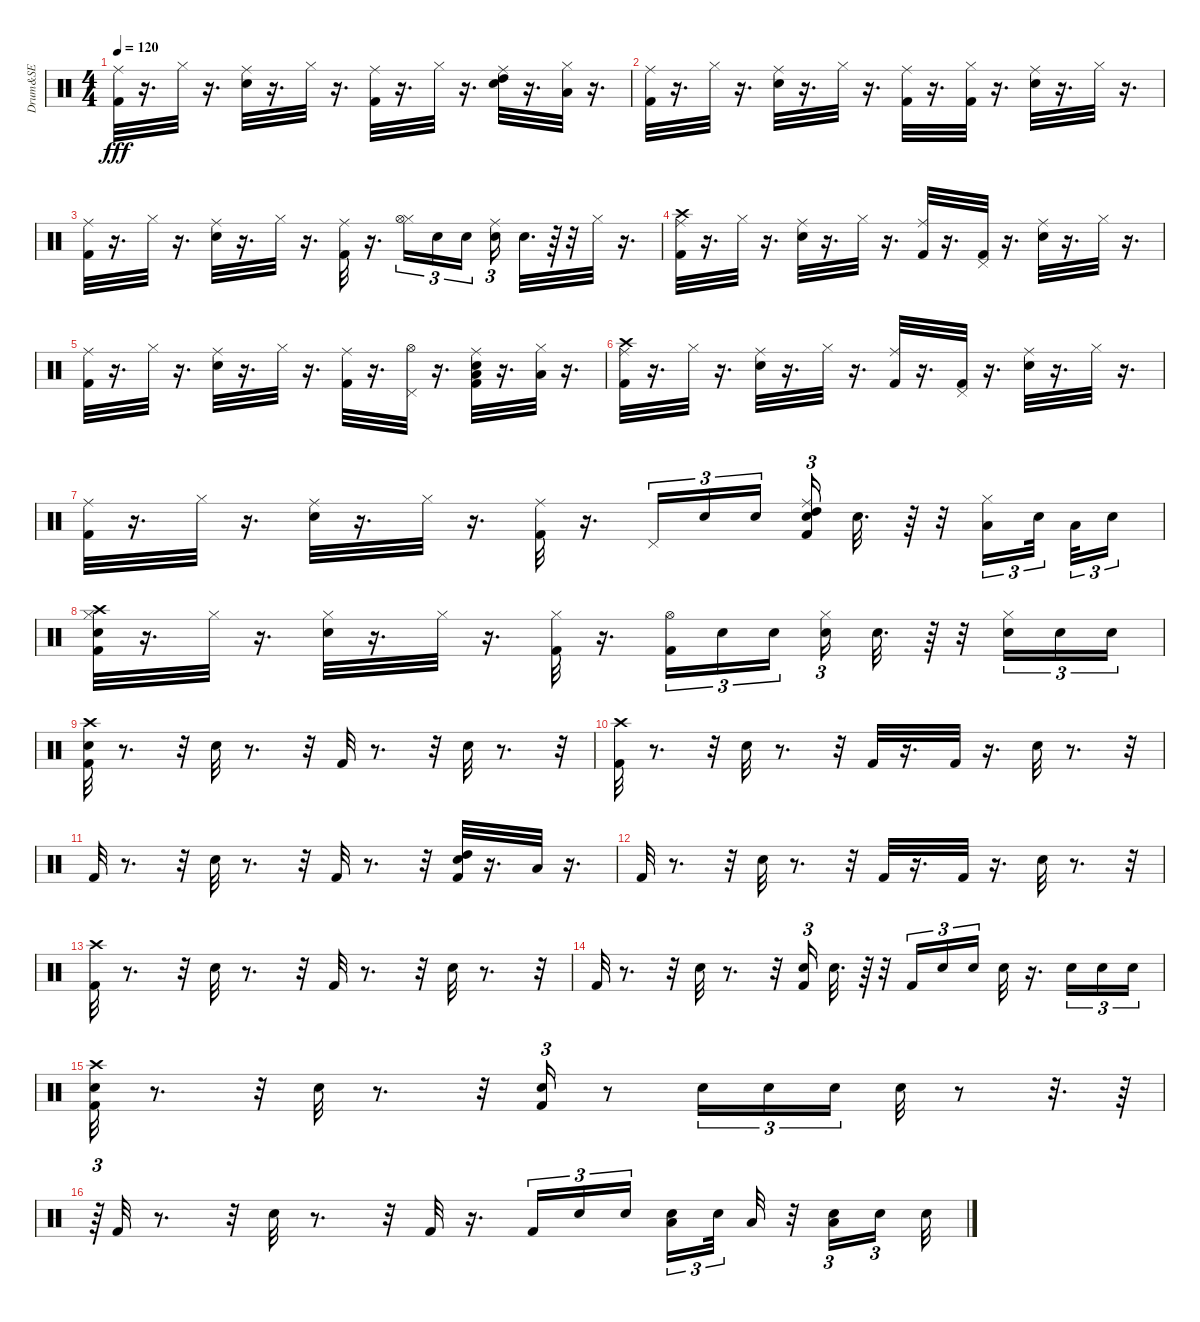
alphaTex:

\track ("Drum&SE" "Drum&SE") {instrument percussion}
\staff {score}
\articulation defaults
\ts (4 4)
\tempo 120
\clef neutral
\ks c
("Kick (hit) 2" "Ride (middle)").32{dy fff} r.16{d} "Hi-Hat (closed)".32 r.16{d} ("Snare (hit) 2" "Ride (middle)").32 r.16{d} "Hi-Hat (closed)".32 r.16{d} ("Kick (hit) 2" "Ride (middle)").32 r.16{d} "Hi-Hat (closed)".32 r.16{d} ("Snare (hit) 2" "High Tom (hit)" "Ride (middle)").32 r.16{d} ("Low Floor Tom (hit)" "Hi-Hat (closed)").32 r.16{d} |
("Kick (hit) 2" "Ride (middle)").32 r.16{d} "Hi-Hat (closed)".32 r.16{d} ("Snare (hit) 2" "Ride (middle)").32 r.16{d} "Hi-Hat (closed)".32 r.16{d} ("Kick (hit) 2" "Ride (middle)").32 r.16{d} ("Kick (hit) 2" "Hi-Hat (closed)").32 r.16{d} ("Snare (hit) 2" "Ride (middle)").32 r.16{d} "Hi-Hat (closed)".32 r.16{d} |
("Kick (hit) 2" "Ride (middle)").32 r.16{d} "Hi-Hat (closed)".32 r.16{d} ("Snare (hit) 2" "Ride (middle)").32 r.16{d} "Hi-Hat (closed)".32 r.16{d} ("Kick (hit) 2" "Ride (middle)").32 r.16{d} ("Hi-Hat (closed)" "Hi-Hat (open)").16{tu (3 2)} "Snare (hit) 2".16{tu (3 2)} "Snare (hit) 2".16{tu (3 2)} ("Snare (hit) 2" "Ride (middle)").16{tu (3 2)} "Snare (hit) 2".32{d} r.64 r.32 "Hi-Hat (closed)".32 r.16{d} |
("Kick (hit) 2" "Crash high (hit)" "Ride (middle)").32 r.16{d} "Hi-Hat (closed)".32 r.16{d} ("Snare (hit) 2" "Ride (middle)").32 r.16{d} "Hi-Hat (closed)".32 r.16{d} ("Kick (hit) 2" "Ride (middle)").32 r.16{d} ("Kick (hit) 2" "Pedal Hi-Hat (hit)").32 r.16{d} ("Snare (hit) 2" "Ride (middle)").32 r.16{d} "Hi-Hat (closed)".32 r.16{d} |
("Kick (hit) 2" "Ride (middle)").32 r.16{d} "Hi-Hat (closed)".32 r.16{d} ("Snare (hit) 2" "Ride (middle)").32 r.16{d} "Hi-Hat (closed)".32 r.16{d} ("Kick (hit) 2" "Ride (middle)").32 r.16{d} ("Pedal Hi-Hat (hit)" "Hi-Hat (open)").32 r.16{d} ("Kick (hit) 2" "Snare (hit) 2" "Low Tom (hit)" "Ride (middle)").32 r.16{d} ("Low Floor Tom (hit)" "Hi-Hat (closed)").32 r.16{d} |
("Kick (hit) 2" "Crash high (hit)" "Ride (middle)").32 r.16{d} "Hi-Hat (closed)".32 r.16{d} ("Snare (hit) 2" "Ride (middle)").32 r.16{d} "Hi-Hat (closed)".32 r.16{d} ("Kick (hit) 2" "Ride (middle)").32 r.16{d} ("Kick (hit) 2" "Pedal Hi-Hat (hit)").32 r.16{d} ("Snare (hit) 2" "Ride (middle)").32 r.16{d} "Hi-Hat (closed)".32 r.16{d} |
("Kick (hit) 2" "Ride (middle)").32 r.16{d} "Hi-Hat (closed)".32 r.16{d} ("Snare (hit) 2" "Ride (middle)").32 r.16{d} "Hi-Hat (closed)".32 r.16{d} ("Kick (hit) 2" "Ride (middle)").32 r.16{d} "Pedal Hi-Hat (hit)".16{tu (3 2)} "Snare (hit) 2".16{tu (3 2)} "Snare (hit) 2".16{tu (3 2)} ("Kick (hit) 2" "Snare (hit) 2" "High Tom (hit)" "Ride (middle)").16{tu (3 2)} "Snare (hit) 2".32{d} r.64 r.32 ("Hi-Hat (closed)" "Low Tom (hit)").16{tu (3 2)} "Snare (hit) 2".32{tu (3 2)} "Low Floor Tom (hit)".32{tu (3 2)} "Snare (hit) 2".16{tu (3 2)} |
("Kick (hit) 2" "Snare (hit) 2" "Hi-Hat (closed)" "Crash high (hit)").32 r.16{d} "Hi-Hat (closed)".32 r.16{d} ("Snare (hit) 2" "Hi-Hat (closed)").32 r.16{d} "Hi-Hat (closed)".32 r.16{d} ("Kick (hit) 2" "Hi-Hat (closed)").32 r.16{d} ("Kick (hit) 2" "Hi-Hat (open)").16{tu (3 2)} "Snare (hit) 2".16{tu (3 2)} "Snare (hit) 2".16{tu (3 2)} ("Snare (hit) 2" "Hi-Hat (closed)").16{tu (3 2)} "Snare (hit) 2".32{d} r.64 r.32 ("Snare (hit) 2" "Hi-Hat (closed)").16{tu (3 2)} "Snare (hit) 2".16{tu (3 2)} "Snare (hit) 2".16{tu (3 2)} |
("Kick (hit) 2" "Snare (hit) 2" "Crash high (hit)").32 r.8{d} r.32 "Snare (hit) 2".32 r.8{d} r.32 "Kick (hit) 2".32 r.8{d} r.32 "Snare (hit) 2".32 r.8{d} r.32 |
("Kick (hit) 2" "Crash high (hit)").32 r.8{d} r.32 "Snare (hit) 2".32 r.8{d} r.32 "Kick (hit) 2".32 r.16{d} "Kick (hit) 2".32 r.16{d} "Snare (hit) 2".32 r.8{d} r.32 |
"Kick (hit) 2".32 r.8{d} r.32 "Snare (hit) 2".32 r.8{d} r.32 "Kick (hit) 2".32 r.8{d} r.32 ("Kick (hit) 2" "Snare (hit) 2" "High Tom (hit)").32 r.16{d} "Low Floor Tom (hit)".32 r.16{d} |
"Kick (hit) 2".32 r.8{d} r.32 "Snare (hit) 2".32 r.8{d} r.32 "Kick (hit) 2".32 r.16{d} "Kick (hit) 2".32 r.16{d} "Snare (hit) 2".32 r.8{d} r.32 |
("Kick (hit) 2" "Crash high (hit)").32 r.8{d} r.32 "Snare (hit) 2".32 r.8{d} r.32 "Kick (hit) 2".32 r.8{d} r.32 "Snare (hit) 2".32 r.8{d} r.32 |
"Kick (hit) 2".32 r.8{d} r.32 "Snare (hit) 2".32 r.8{d} r.32 ("Kick (hit) 2" "Snare (hit) 2").16{tu (3 2)} "Snare (hit) 2".32{d} r.64 r.32 "Kick (hit) 2".16{tu (3 2)} "Snare (hit) 2".16{tu (3 2)} "Snare (hit) 2".16{tu (3 2)} "Snare (hit) 2".32 r.16{d} "Snare (hit) 2".16{tu (3 2)} "Snare (hit) 2".16{tu (3 2)} "Snare (hit) 2".16{tu (3 2)} |
("Kick (hit) 2" "Snare (hit) 2" "Crash high (hit)").32 r.8{d} r.32 "Snare (hit) 2".32 r.8{d} r.32 ("Kick (hit) 2" "Snare (hit) 2").16{tu (3 2)} r.8 "Snare (hit) 2".16{tu (3 2)} "Snare (hit) 2".16{tu (3 2)} "Snare (hit) 2".16{tu (3 2)} "Snare (hit) 2".32 r.8 r.32{d} r.64 |
r.64{tu (3 2)} "Kick (hit) 2".32 r.8{d} r.32 "Snare (hit) 2".32 r.8{d} r.32 "Kick (hit) 2".32 r.16{d} "Kick (hit) 2".16{tu (3 2)} "Snare (hit) 2".16{tu (3 2)} "Snare (hit) 2".16{tu (3 2)} ("Snare (hit) 2" "Low Floor Tom (hit)").16{tu (3 2)} "Snare (hit) 2".32{tu (3 2)} "Low Tom (hit)".32 r.32 ("Snare (hit) 2" "Low Floor Tom (hit)").16{tu (3 2)} "Snare (hit) 2".16{tu (3 2)} "Snare (hit) 2".32
